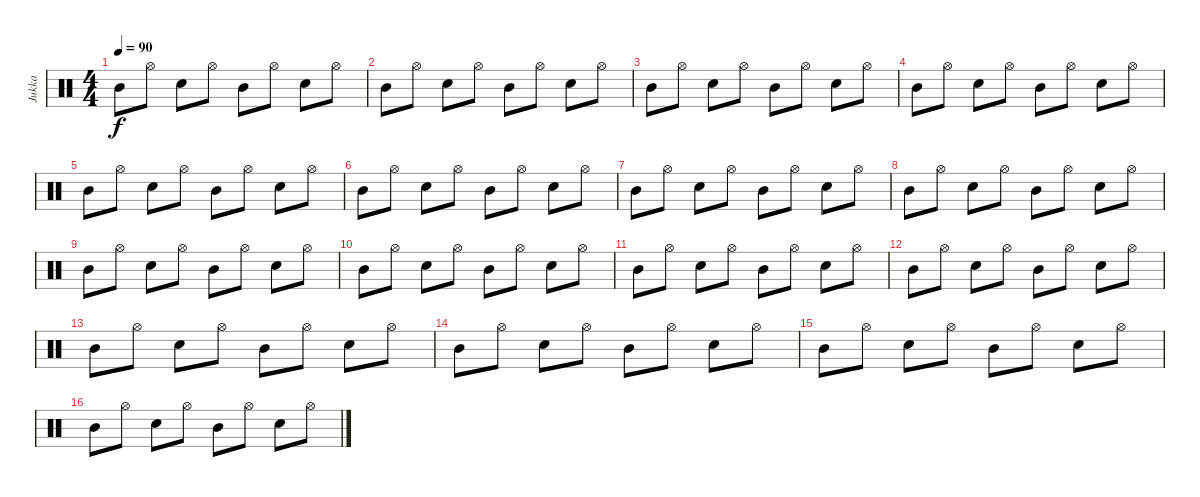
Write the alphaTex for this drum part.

\track ("Jukka" "Jukka") {instrument percussion}
\staff {score}
\articulation defaults
\ts (4 4)
\tempo 90
\clef neutral
\ks c "Mid Tom (hit)".8{dy f} "Hi-Hat (open)".8 "Snare (hit) 2".8 "Hi-Hat (open)".8 "Mid Tom (hit)".8 "Hi-Hat (open)".8 "Snare (hit) 2".8 "Hi-Hat (open)".8
|
"Mid Tom (hit)".8 "Hi-Hat (open)".8 "Snare (hit) 2".8 "Hi-Hat (open)".8 "Mid Tom (hit)".8 "Hi-Hat (open)".8 "Snare (hit) 2".8 "Hi-Hat (open)".8 |
"Mid Tom (hit)".8 "Hi-Hat (open)".8 "Snare (hit) 2".8 "Hi-Hat (open)".8 "Mid Tom (hit)".8 "Hi-Hat (open)".8 "Snare (hit) 2".8 "Hi-Hat (open)".8 |
"Mid Tom (hit)".8 "Hi-Hat (open)".8 "Snare (hit) 2".8 "Hi-Hat (open)".8 "Mid Tom (hit)".8 "Hi-Hat (open)".8 "Snare (hit) 2".8 "Hi-Hat (open)".8 |
"Mid Tom (hit)".8 "Hi-Hat (open)".8 "Snare (hit) 2".8 "Hi-Hat (open)".8 "Mid Tom (hit)".8 "Hi-Hat (open)".8 "Snare (hit) 2".8 "Hi-Hat (open)".8 |
"Mid Tom (hit)".8 "Hi-Hat (open)".8 "Snare (hit) 2".8 "Hi-Hat (open)".8 "Mid Tom (hit)".8 "Hi-Hat (open)".8 "Snare (hit) 2".8 "Hi-Hat (open)".8 |
"Mid Tom (hit)".8 "Hi-Hat (open)".8 "Snare (hit) 2".8 "Hi-Hat (open)".8 "Mid Tom (hit)".8 "Hi-Hat (open)".8 "Snare (hit) 2".8 "Hi-Hat (open)".8 |
"Mid Tom (hit)".8 "Hi-Hat (open)".8 "Snare (hit) 2".8 "Hi-Hat (open)".8 "Mid Tom (hit)".8 "Hi-Hat (open)".8 "Snare (hit) 2".8 "Hi-Hat (open)".8 |
"Mid Tom (hit)".8 "Hi-Hat (open)".8 "Snare (hit) 2".8 "Hi-Hat (open)".8 "Mid Tom (hit)".8 "Hi-Hat (open)".8 "Snare (hit) 2".8 "Hi-Hat (open)".8 |
"Mid Tom (hit)".8 "Hi-Hat (open)".8 "Snare (hit) 2".8 "Hi-Hat (open)".8 "Mid Tom (hit)".8 "Hi-Hat (open)".8 "Snare (hit) 2".8 "Hi-Hat (open)".8 |
"Mid Tom (hit)".8 "Hi-Hat (open)".8 "Snare (hit) 2".8 "Hi-Hat (open)".8 "Mid Tom (hit)".8 "Hi-Hat (open)".8 "Snare (hit) 2".8 "Hi-Hat (open)".8 |
"Mid Tom (hit)".8 "Hi-Hat (open)".8 "Snare (hit) 2".8 "Hi-Hat (open)".8 "Mid Tom (hit)".8 "Hi-Hat (open)".8 "Snare (hit) 2".8 "Hi-Hat (open)".8 |
"Mid Tom (hit)".8 "Hi-Hat (open)".8 "Snare (hit) 2".8 "Hi-Hat (open)".8 "Mid Tom (hit)".8 "Hi-Hat (open)".8 "Snare (hit) 2".8 "Hi-Hat (open)".8 |
"Mid Tom (hit)".8 "Hi-Hat (open)".8 "Snare (hit) 2".8 "Hi-Hat (open)".8 "Mid Tom (hit)".8 "Hi-Hat (open)".8 "Snare (hit) 2".8 "Hi-Hat (open)".8 |
"Mid Tom (hit)".8 "Hi-Hat (open)".8 "Snare (hit) 2".8 "Hi-Hat (open)".8 "Mid Tom (hit)".8 "Hi-Hat (open)".8 "Snare (hit) 2".8 "Hi-Hat (open)".8 |
"Mid Tom (hit)".8 "Hi-Hat (open)".8 "Snare (hit) 2".8 "Hi-Hat (open)".8 "Mid Tom (hit)".8 "Hi-Hat (open)".8 "Snare (hit) 2".8 "Hi-Hat (open)".8
